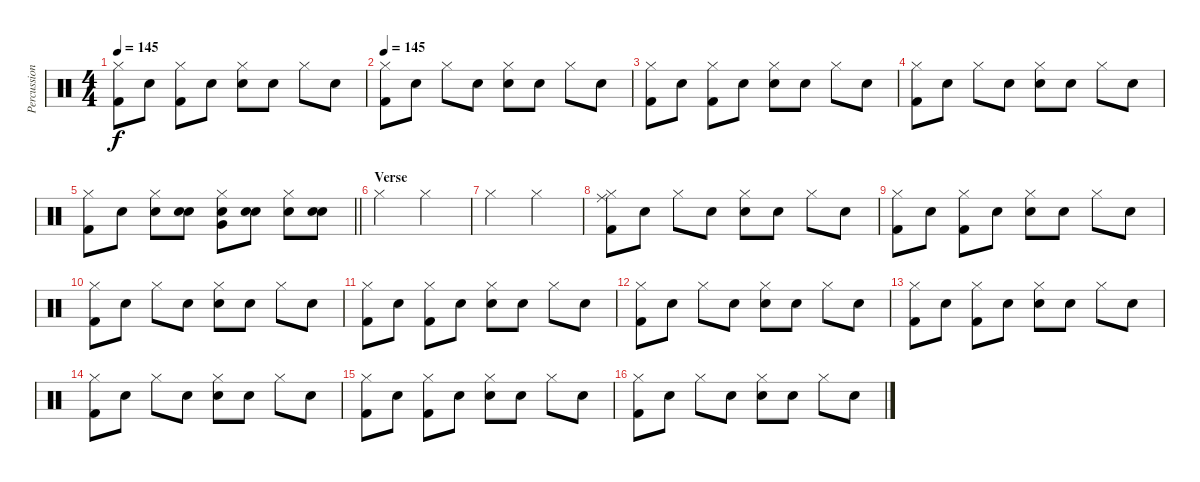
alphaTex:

\track ("Percussion" "Percussion") {instrument percussion}
\staff {score}
\articulation defaults
\ts (4 4)
\tempo 145
\clef neutral
\ks c
("Hi-Hat (closed)" "Kick (hit) 2").8{dy f} "Snare (hit)"{x}.8 ("Hi-Hat (closed)" "Kick (hit) 2").8 "Snare (hit)"{x}.8 ("Hi-Hat (closed)" "Electric Snare (hit)").8 "Snare (hit)"{x}.8 "Hi-Hat (closed)".8 "Snare (hit)"{x}.8 |
\tempo 145
("Hi-Hat (closed)" "Kick (hit) 2").8 "Snare (hit)"{x}.8 "Hi-Hat (closed)".8 "Snare (hit)"{x}.8 ("Hi-Hat (closed)" "Electric Snare (hit)").8 "Snare (hit)"{x}.8 "Hi-Hat (closed)".8 "Snare (hit)"{x}.8 |
("Hi-Hat (closed)" "Kick (hit) 2").8 "Snare (hit)"{x}.8 ("Hi-Hat (closed)" "Kick (hit) 2").8 "Snare (hit)"{x}.8 ("Hi-Hat (closed)" "Electric Snare (hit)").8 "Snare (hit)"{x}.8 "Hi-Hat (closed)".8 "Snare (hit)"{x}.8 |
("Hi-Hat (closed)" "Kick (hit) 2").8 "Snare (hit)"{x}.8 "Hi-Hat (closed)".8 "Snare (hit)"{x}.8 ("Hi-Hat (closed)" "Electric Snare (hit)").8 "Snare (hit)"{x}.8 "Hi-Hat (closed)".8 "Snare (hit)"{x}.8 |
\barLineRight lightlight
("Hi-Hat (closed)" "Kick (hit) 2").8 "Snare (hit)"{x}.8 ("Hi-Hat (closed)" "Electric Snare (hit)"{x}).8 ("Snare (hit)"{x} "Electric Snare (hit)").8 ("Hi-Hat (closed)" "Very Low Tom (hit)" "Electric Snare (hit)").8 ("Snare (hit)"{x} "Electric Snare (hit)"{x}).8 ("Hi-Hat (closed)" "Electric Snare (hit)").8 ("Snare (hit)"{x} "Electric Snare (hit)").8 |
\section ("" "Verse")
"Hi-Hat (closed)".2 "Hi-Hat (closed)".2 |
"Hi-Hat (closed)".2 "Hi-Hat (closed)".2 |
("Hi-Hat (closed)" "Ride (middle)" "Kick (hit) 2").8 "Snare (hit)"{x}.8 "Hi-Hat (closed)".8 "Snare (hit)"{x}.8 ("Hi-Hat (closed)" "Electric Snare (hit)").8 "Snare (hit)"{x}.8 "Hi-Hat (closed)".8 "Snare (hit)"{x}.8 |
("Hi-Hat (closed)" "Kick (hit) 2").8 "Snare (hit)"{x}.8 ("Hi-Hat (closed)" "Kick (hit) 2").8 "Snare (hit)"{x}.8 ("Hi-Hat (closed)" "Electric Snare (hit)").8 "Snare (hit)"{x}.8 "Hi-Hat (closed)".8 "Snare (hit)"{x}.8 |
("Hi-Hat (closed)" "Kick (hit) 2").8 "Snare (hit)"{x}.8 "Hi-Hat (closed)".8 "Snare (hit)"{x}.8 ("Hi-Hat (closed)" "Electric Snare (hit)").8 "Snare (hit)"{x}.8 "Hi-Hat (closed)".8 "Snare (hit)"{x}.8 |
("Hi-Hat (closed)" "Kick (hit) 2").8 "Snare (hit)"{x}.8 ("Hi-Hat (closed)" "Kick (hit) 2").8 "Snare (hit)"{x}.8 ("Hi-Hat (closed)" "Electric Snare (hit)").8 "Snare (hit)"{x}.8 "Hi-Hat (closed)".8 "Snare (hit)"{x}.8 |
("Hi-Hat (closed)" "Kick (hit) 2").8 "Snare (hit)"{x}.8 "Hi-Hat (closed)".8 "Snare (hit)"{x}.8 ("Hi-Hat (closed)" "Electric Snare (hit)").8 "Snare (hit)"{x}.8 "Hi-Hat (closed)".8 "Snare (hit)"{x}.8 |
("Hi-Hat (closed)" "Kick (hit) 2").8 "Snare (hit)"{x}.8 ("Hi-Hat (closed)" "Kick (hit) 2").8 "Snare (hit)"{x}.8 ("Hi-Hat (closed)" "Electric Snare (hit)").8 "Snare (hit)"{x}.8 "Hi-Hat (closed)".8 "Snare (hit)"{x}.8 |
("Hi-Hat (closed)" "Kick (hit) 2").8 "Snare (hit)"{x}.8 "Hi-Hat (closed)".8 "Snare (hit)"{x}.8 ("Hi-Hat (closed)" "Electric Snare (hit)").8 "Snare (hit)"{x}.8 "Hi-Hat (closed)".8 "Snare (hit)"{x}.8 |
("Hi-Hat (closed)" "Kick (hit) 2").8 "Snare (hit)"{x}.8 ("Hi-Hat (closed)" "Kick (hit) 2").8 "Snare (hit)"{x}.8 ("Hi-Hat (closed)" "Electric Snare (hit)").8 "Snare (hit)"{x}.8 "Hi-Hat (closed)".8 "Snare (hit)"{x}.8 |
("Hi-Hat (closed)" "Kick (hit) 2").8 "Snare (hit)"{x}.8 "Hi-Hat (closed)".8 "Snare (hit)"{x}.8 ("Hi-Hat (closed)" "Electric Snare (hit)").8 "Snare (hit)"{x}.8 "Hi-Hat (closed)".8 "Snare (hit)"{x}.8
